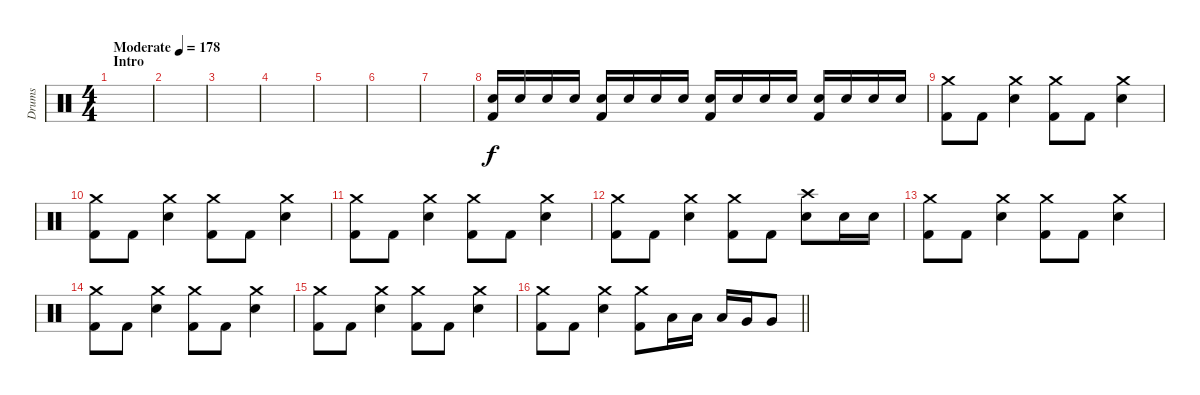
\track ("Drums" "Drums") {instrument percussion}
\staff {score}
\articulation defaults
\ts (4 4)
\section ("" "Intro")
\tempo (178 "Moderate")
\clef neutral
\ks c
|
|
|
|
|
|
|
("Electric Snare (hit)" "Kick (hit) 2").16 "Electric Snare (hit)".16 "Electric Snare (hit)".16 "Electric Snare (hit)".16 ("Electric Snare (hit)" "Kick (hit) 2").16 "Electric Snare (hit)".16 "Electric Snare (hit)".16 "Electric Snare (hit)".16 ("Electric Snare (hit)" "Kick (hit) 2").16 "Electric Snare (hit)".16 "Electric Snare (hit)".16 "Electric Snare (hit)".16 ("Electric Snare (hit)" "Kick (hit) 2").16 "Electric Snare (hit)".16 "Electric Snare (hit)".16 "Electric Snare (hit)".16 |
("Crash medium (hit)" "Kick (hit) 2").8 "Kick (hit) 2".8 ("Crash medium (hit)" "Electric Snare (hit)").4 ("Crash medium (hit)" "Kick (hit) 2").8 "Kick (hit) 2".8 ("Crash medium (hit)" "Electric Snare (hit)").4 |
("Crash medium (hit)" "Kick (hit) 2").8 "Kick (hit) 2".8 ("Crash medium (hit)" "Electric Snare (hit)").4 ("Crash medium (hit)" "Kick (hit) 2").8 "Kick (hit) 2".8 ("Crash medium (hit)" "Electric Snare (hit)").4 |
("Crash medium (hit)" "Kick (hit) 2").8 "Kick (hit) 2".8 ("Crash medium (hit)" "Electric Snare (hit)").4 ("Crash medium (hit)" "Kick (hit) 2").8 "Kick (hit) 2".8 ("Crash medium (hit)" "Electric Snare (hit)").4 |
("Crash medium (hit)" "Kick (hit) 2").8 "Kick (hit) 2".8 ("Crash medium (hit)" "Electric Snare (hit)").4 ("Crash medium (hit)" "Kick (hit) 2").8 "Kick (hit) 2".8 ("Crash high (hit)" "Electric Snare (hit)").8 "Electric Snare (hit)".16 "Electric Snare (hit)".16 |
("Crash medium (hit)" "Kick (hit) 2").8 "Kick (hit) 2".8 ("Crash medium (hit)" "Electric Snare (hit)").4 ("Crash medium (hit)" "Kick (hit) 2").8 "Kick (hit) 2".8 ("Crash medium (hit)" "Electric Snare (hit)").4 |
("Crash medium (hit)" "Kick (hit) 2").8 "Kick (hit) 2".8 ("Crash medium (hit)" "Electric Snare (hit)").4 ("Crash medium (hit)" "Kick (hit) 2").8 "Kick (hit) 2".8 ("Crash medium (hit)" "Electric Snare (hit)").4 |
("Crash medium (hit)" "Kick (hit) 2").8 "Kick (hit) 2".8 ("Crash medium (hit)" "Electric Snare (hit)").4 ("Crash medium (hit)" "Kick (hit) 2").8 "Kick (hit) 2".8 ("Crash medium (hit)" "Electric Snare (hit)").4 |
\barLineRight lightlight
("Crash medium (hit)" "Kick (hit) 2").8 "Kick (hit) 2".8 ("Crash medium (hit)" "Electric Snare (hit)").4 ("Crash medium (hit)" "Kick (hit) 2").8 "Low Tom (hit)".16 "Low Tom (hit)".16 "Low Tom (hit)".16 "Very Low Tom (hit)".16 "Very Low Tom (hit)".8
